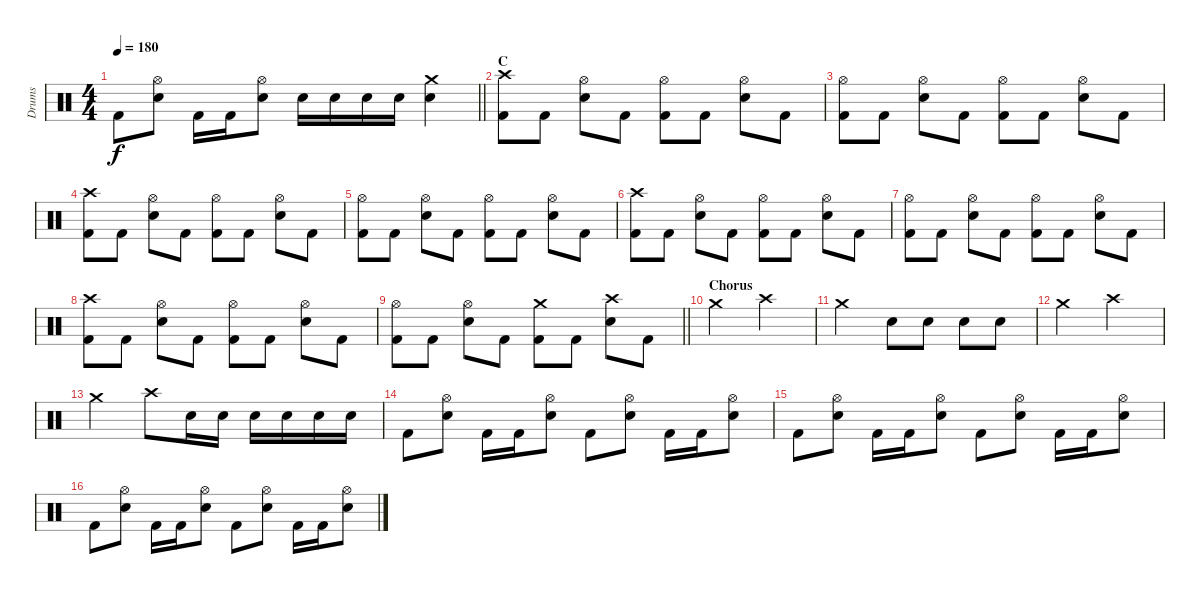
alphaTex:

\track ("Drums" "Drums") {instrument percussion}
\staff {score}
\articulation defaults
\ts (4 4)
\tempo 180
\clef neutral
\barLineRight lightlight
\ks c "Kick (hit) 2".8{dy f}
("Hi-Hat (open)" "Electric Snare (hit)").8 "Kick (hit) 2".16 "Kick (hit) 2".16 ("Hi-Hat (open)" "Electric Snare (hit)").8 "Electric Snare (hit)".16 "Electric Snare (hit)".16 "Electric Snare (hit)".16 "Electric Snare (hit)".16 ("Crash medium (hit)" "Electric Snare (hit)").4 |
\section ("" "C")
("Crash high (hit)" "Kick (hit) 2").8 "Kick (hit) 2".8 ("Hi-Hat (open)" "Electric Snare (hit)").8 "Kick (hit) 2".8 ("Hi-Hat (open)" "Kick (hit) 2").8 "Kick (hit) 2".8 ("Hi-Hat (open)" "Electric Snare (hit)").8 "Kick (hit) 2".8 |
("Hi-Hat (open)" "Kick (hit) 2").8 "Kick (hit) 2".8 ("Hi-Hat (open)" "Electric Snare (hit)").8 "Kick (hit) 2".8 ("Hi-Hat (open)" "Kick (hit) 2").8 "Kick (hit) 2".8 ("Hi-Hat (open)" "Electric Snare (hit)").8 "Kick (hit) 2".8 |
("Crash high (hit)" "Kick (hit) 2").8 "Kick (hit) 2".8 ("Hi-Hat (open)" "Electric Snare (hit)").8 "Kick (hit) 2".8 ("Hi-Hat (open)" "Kick (hit) 2").8 "Kick (hit) 2".8 ("Hi-Hat (open)" "Electric Snare (hit)").8 "Kick (hit) 2".8 |
("Hi-Hat (open)" "Kick (hit) 2").8 "Kick (hit) 2".8 ("Hi-Hat (open)" "Electric Snare (hit)").8 "Kick (hit) 2".8 ("Hi-Hat (open)" "Kick (hit) 2").8 "Kick (hit) 2".8 ("Hi-Hat (open)" "Electric Snare (hit)").8 "Kick (hit) 2".8 |
("Crash high (hit)" "Kick (hit) 2").8 "Kick (hit) 2".8 ("Hi-Hat (open)" "Electric Snare (hit)").8 "Kick (hit) 2".8 ("Hi-Hat (open)" "Kick (hit) 2").8 "Kick (hit) 2".8 ("Hi-Hat (open)" "Electric Snare (hit)").8 "Kick (hit) 2".8 |
("Hi-Hat (open)" "Kick (hit) 2").8 "Kick (hit) 2".8 ("Hi-Hat (open)" "Electric Snare (hit)").8 "Kick (hit) 2".8 ("Hi-Hat (open)" "Kick (hit) 2").8 "Kick (hit) 2".8 ("Hi-Hat (open)" "Electric Snare (hit)").8 "Kick (hit) 2".8 |
("Crash high (hit)" "Kick (hit) 2").8 "Kick (hit) 2".8 ("Hi-Hat (open)" "Electric Snare (hit)").8 "Kick (hit) 2".8 ("Hi-Hat (open)" "Kick (hit) 2").8 "Kick (hit) 2".8 ("Hi-Hat (open)" "Electric Snare (hit)").8 "Kick (hit) 2".8 |
\barLineRight lightlight
("Hi-Hat (open)" "Kick (hit) 2").8 "Kick (hit) 2".8 ("Hi-Hat (open)" "Electric Snare (hit)").8 "Kick (hit) 2".8 ("Crash medium (hit)" "Kick (hit) 2").8 "Kick (hit) 2".8 ("Crash high (hit)" "Electric Snare (hit)").8 "Kick (hit) 2".8 |
\section ("" "Chorus")
"Crash medium (hit)".2 "Crash high (hit)".2 |
"Crash medium (hit)".2 "Electric Snare (hit)".8 "Electric Snare (hit)".8 "Electric Snare (hit)".8 "Electric Snare (hit)".8 |
"Crash medium (hit)".2 "Crash high (hit)".2 |
"Crash medium (hit)".2 "Crash high (hit)".8 "Electric Snare (hit)".16 "Electric Snare (hit)".16 "Electric Snare (hit)".16 "Electric Snare (hit)".16 "Electric Snare (hit)".16 "Electric Snare (hit)".16 |
"Kick (hit) 2".8 ("Hi-Hat (open)" "Electric Snare (hit)").8 "Kick (hit) 2".16 "Kick (hit) 2".16 ("Hi-Hat (open)" "Electric Snare (hit)").8 "Kick (hit) 2".8 ("Hi-Hat (open)" "Electric Snare (hit)").8 "Kick (hit) 2".16 "Kick (hit) 2".16 ("Hi-Hat (open)" "Electric Snare (hit)").8 |
"Kick (hit) 2".8 ("Hi-Hat (open)" "Electric Snare (hit)").8 "Kick (hit) 2".16 "Kick (hit) 2".16 ("Hi-Hat (open)" "Electric Snare (hit)").8 "Kick (hit) 2".8 ("Hi-Hat (open)" "Electric Snare (hit)").8 "Kick (hit) 2".16 "Kick (hit) 2".16 ("Hi-Hat (open)" "Electric Snare (hit)").8 |
"Kick (hit) 2".8 ("Hi-Hat (open)" "Electric Snare (hit)").8 "Kick (hit) 2".16 "Kick (hit) 2".16 ("Hi-Hat (open)" "Electric Snare (hit)").8 "Kick (hit) 2".8 ("Hi-Hat (open)" "Electric Snare (hit)").8 "Kick (hit) 2".16 "Kick (hit) 2".16 ("Hi-Hat (open)" "Electric Snare (hit)").8
